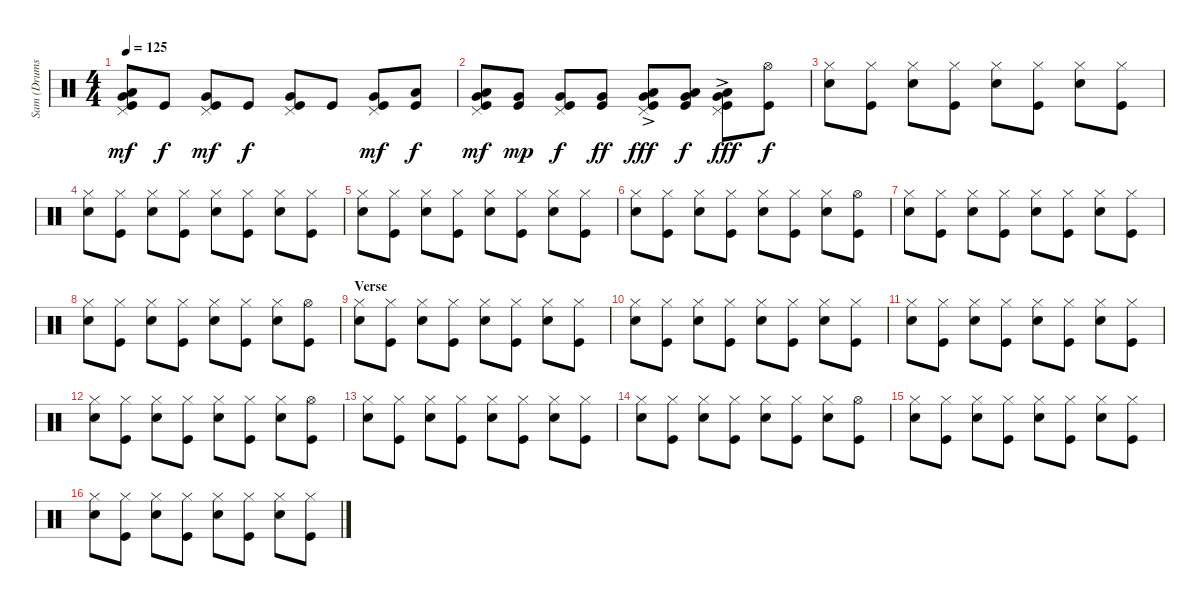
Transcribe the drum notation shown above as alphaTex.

\track ("Sam (Drums)" "Sam (Drums") {instrument percussion}
\staff {score}
\articulation defaults
\ts (4 4)
\tempo 125
\clef neutral
\ks c
("Pedal Hi-Hat (hit)" "Low Tom (hit)" "Very Low Tom (hit)" "Kick (hit)").8{dy mf} "Kick (hit)".8{dy f} ("Pedal Hi-Hat (hit)" "Very Low Tom (hit)" "Kick (hit)").8{dy mf} "Kick (hit)".8{dy f} ("Pedal Hi-Hat (hit)" "Very Low Tom (hit)" "Kick (hit)").8 "Kick (hit)".8 ("Pedal Hi-Hat (hit)" "Very Low Tom (hit)" "Kick (hit)").8{dy mf} ("Low Floor Tom (hit)" "Kick (hit)").8{dy f} |
("Pedal Hi-Hat (hit)" "Low Tom (hit)" "Very Low Tom (hit)" "Kick (hit)").8{dy mf} ("Very Low Tom (hit)" "Kick (hit)").8{dy mp} ("Pedal Hi-Hat (hit)" "Very Low Tom (hit)" "Kick (hit)").8{dy f} ("Very Low Tom (hit)" "Kick (hit)").8{dy ff} ("Pedal Hi-Hat (hit)"{ac} "Low Tom (hit)" "Very Low Tom (hit)" "Kick (hit)").8{dy fff} ("Very Low Tom (hit)" "Low Floor Tom (hit)" "Kick (hit)").8{dy f} ("Pedal Hi-Hat (hit)"{ac} "Low Tom (hit)" "Very Low Tom (hit)" "Kick (hit)").8{dy fff} ("Hi-Hat (open)" "Kick (hit)").8{dy f} |
("Hi-Hat (closed)" "Snare (hit) 2").8 ("Hi-Hat (closed)" "Kick (hit)").8 ("Hi-Hat (closed)" "Snare (hit) 2").8 ("Hi-Hat (closed)" "Kick (hit)").8 ("Hi-Hat (closed)" "Snare (hit) 2").8 ("Hi-Hat (closed)" "Kick (hit)").8 ("Hi-Hat (closed)" "Snare (hit) 2").8 ("Hi-Hat (closed)" "Kick (hit)").8 |
("Hi-Hat (closed)" "Snare (hit) 2").8 ("Hi-Hat (closed)" "Kick (hit)").8 ("Hi-Hat (closed)" "Snare (hit) 2").8 ("Hi-Hat (closed)" "Kick (hit)").8 ("Hi-Hat (closed)" "Snare (hit) 2").8 ("Hi-Hat (closed)" "Kick (hit)").8 ("Hi-Hat (closed)" "Snare (hit) 2").8 ("Hi-Hat (closed)" "Kick (hit)").8 |
("Hi-Hat (closed)" "Snare (hit) 2").8 ("Hi-Hat (closed)" "Kick (hit)").8 ("Hi-Hat (closed)" "Snare (hit) 2").8 ("Hi-Hat (closed)" "Kick (hit)").8 ("Hi-Hat (closed)" "Snare (hit) 2").8 ("Hi-Hat (closed)" "Kick (hit)").8 ("Hi-Hat (closed)" "Snare (hit) 2").8 ("Hi-Hat (closed)" "Kick (hit)").8 |
("Hi-Hat (closed)" "Snare (hit) 2").8 ("Hi-Hat (closed)" "Kick (hit)").8 ("Hi-Hat (closed)" "Snare (hit) 2").8 ("Hi-Hat (closed)" "Kick (hit)").8 ("Hi-Hat (closed)" "Snare (hit) 2").8 ("Hi-Hat (closed)" "Kick (hit)").8 ("Hi-Hat (closed)" "Snare (hit) 2").8 ("Hi-Hat (open)" "Kick (hit)").8 |
("Hi-Hat (closed)" "Snare (hit) 2").8 ("Hi-Hat (closed)" "Kick (hit)").8 ("Hi-Hat (closed)" "Snare (hit) 2").8 ("Hi-Hat (closed)" "Kick (hit)").8 ("Hi-Hat (closed)" "Snare (hit) 2").8 ("Hi-Hat (closed)" "Kick (hit)").8 ("Hi-Hat (closed)" "Snare (hit) 2").8 ("Hi-Hat (closed)" "Kick (hit)").8 |
("Hi-Hat (closed)" "Snare (hit) 2").8 ("Hi-Hat (closed)" "Kick (hit)").8 ("Hi-Hat (closed)" "Snare (hit) 2").8 ("Hi-Hat (closed)" "Kick (hit)").8 ("Hi-Hat (closed)" "Snare (hit) 2").8 ("Hi-Hat (closed)" "Kick (hit)").8 ("Hi-Hat (closed)" "Snare (hit) 2").8 ("Hi-Hat (open)" "Kick (hit)").8 |
\section ("" "Verse")
("Hi-Hat (closed)" "Snare (hit) 2").8 ("Hi-Hat (closed)" "Kick (hit)").8 ("Hi-Hat (closed)" "Snare (hit) 2").8 ("Hi-Hat (closed)" "Kick (hit)").8 ("Hi-Hat (closed)" "Snare (hit) 2").8 ("Hi-Hat (closed)" "Kick (hit)").8 ("Hi-Hat (closed)" "Snare (hit) 2").8 ("Hi-Hat (closed)" "Kick (hit)").8 |
("Hi-Hat (closed)" "Snare (hit) 2").8 ("Hi-Hat (closed)" "Kick (hit)").8 ("Hi-Hat (closed)" "Snare (hit) 2").8 ("Hi-Hat (closed)" "Kick (hit)").8 ("Hi-Hat (closed)" "Snare (hit) 2").8 ("Hi-Hat (closed)" "Kick (hit)").8 ("Hi-Hat (closed)" "Snare (hit) 2").8 ("Hi-Hat (closed)" "Kick (hit)").8 |
("Hi-Hat (closed)" "Snare (hit) 2").8 ("Hi-Hat (closed)" "Kick (hit)").8 ("Hi-Hat (closed)" "Snare (hit) 2").8 ("Hi-Hat (closed)" "Kick (hit)").8 ("Hi-Hat (closed)" "Snare (hit) 2").8 ("Hi-Hat (closed)" "Kick (hit)").8 ("Hi-Hat (closed)" "Snare (hit) 2").8 ("Hi-Hat (closed)" "Kick (hit)").8 |
("Hi-Hat (closed)" "Snare (hit) 2").8 ("Hi-Hat (closed)" "Kick (hit)").8 ("Hi-Hat (closed)" "Snare (hit) 2").8 ("Hi-Hat (closed)" "Kick (hit)").8 ("Hi-Hat (closed)" "Snare (hit) 2").8 ("Hi-Hat (closed)" "Kick (hit)").8 ("Hi-Hat (closed)" "Snare (hit) 2").8 ("Hi-Hat (open)" "Kick (hit)").8 |
("Hi-Hat (closed)" "Snare (hit) 2").8 ("Hi-Hat (closed)" "Kick (hit)").8 ("Hi-Hat (closed)" "Snare (hit) 2").8 ("Hi-Hat (closed)" "Kick (hit)").8 ("Hi-Hat (closed)" "Snare (hit) 2").8 ("Hi-Hat (closed)" "Kick (hit)").8 ("Hi-Hat (closed)" "Snare (hit) 2").8 ("Hi-Hat (closed)" "Kick (hit)").8 |
("Hi-Hat (closed)" "Snare (hit) 2").8 ("Hi-Hat (closed)" "Kick (hit)").8 ("Hi-Hat (closed)" "Snare (hit) 2").8 ("Hi-Hat (closed)" "Kick (hit)").8 ("Hi-Hat (closed)" "Snare (hit) 2").8 ("Hi-Hat (closed)" "Kick (hit)").8 ("Hi-Hat (closed)" "Snare (hit) 2").8 ("Hi-Hat (open)" "Kick (hit)").8 |
("Hi-Hat (closed)" "Snare (hit) 2").8 ("Hi-Hat (closed)" "Kick (hit)").8 ("Hi-Hat (closed)" "Snare (hit) 2").8 ("Hi-Hat (closed)" "Kick (hit)").8 ("Hi-Hat (closed)" "Snare (hit) 2").8 ("Hi-Hat (closed)" "Kick (hit)").8 ("Hi-Hat (closed)" "Snare (hit) 2").8 ("Hi-Hat (closed)" "Kick (hit)").8 |
("Hi-Hat (closed)" "Snare (hit) 2").8 ("Hi-Hat (closed)" "Kick (hit)").8 ("Hi-Hat (closed)" "Snare (hit) 2").8 ("Hi-Hat (closed)" "Kick (hit)").8 ("Hi-Hat (closed)" "Snare (hit) 2").8 ("Hi-Hat (closed)" "Kick (hit)").8 ("Hi-Hat (closed)" "Snare (hit) 2").8 ("Hi-Hat (closed)" "Kick (hit)").8
